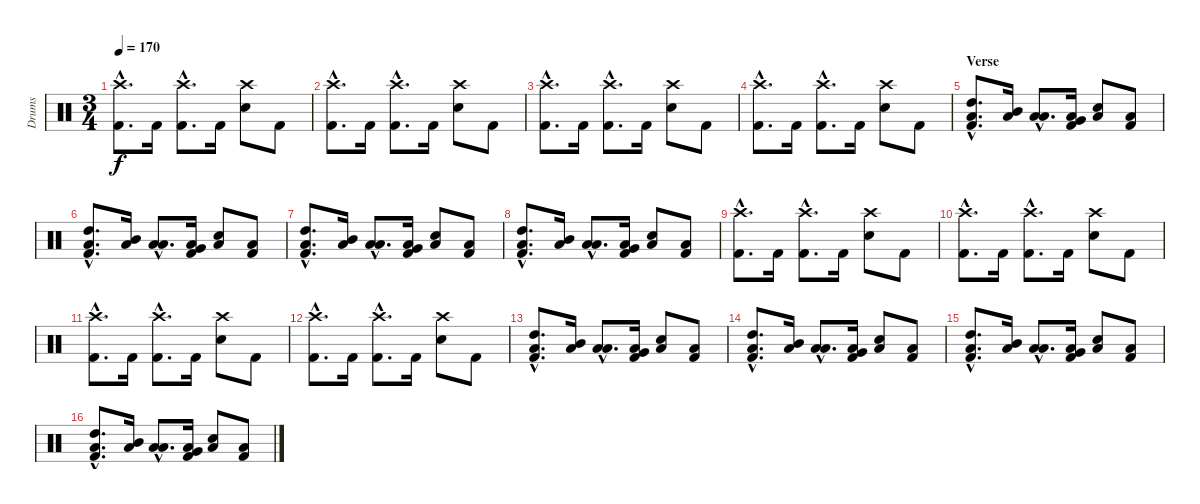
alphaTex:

\track ("Drums" "Drums") {instrument percussion}
\staff {score}
\articulation defaults
\ts (3 4)
\tempo 170
\clef neutral
\ks c
("Crash high (hit)"{hac} "Kick (hit) 2"{hac}).8{d dy f} "Kick (hit) 2".16 ("Crash high (hit)"{hac} "Kick (hit) 2"{hac}).8{d} "Kick (hit) 2".16 ("Crash high (hit)" "Electric Snare (hit)").8 "Kick (hit) 2".8 |
("Crash high (hit)"{hac} "Kick (hit) 2"{hac}).8{d} "Kick (hit) 2".16 ("Crash high (hit)"{hac} "Kick (hit) 2"{hac}).8{d} "Kick (hit) 2".16 ("Crash high (hit)" "Electric Snare (hit)").8 "Kick (hit) 2".8 |
("Crash high (hit)"{hac} "Kick (hit) 2"{hac}).8{d} "Kick (hit) 2".16 ("Crash high (hit)"{hac} "Kick (hit) 2"{hac}).8{d} "Kick (hit) 2".16 ("Crash high (hit)" "Electric Snare (hit)").8 "Kick (hit) 2".8 |
("Crash high (hit)"{hac} "Kick (hit) 2"{hac}).8{d} "Kick (hit) 2".16 ("Crash high (hit)"{hac} "Kick (hit) 2"{hac}).8{d} "Kick (hit) 2".16 ("Crash high (hit)" "Electric Snare (hit)").8 "Kick (hit) 2".8 |
\section ("" "Verse")
("High Tom (hit)"{hac} "Low Floor Tom (hit)"{hac} "Kick (hit) 2"{hac}).8{d} ("Mid Tom (hit)" "Low Floor Tom (hit)").16 ("Low Tom (hit)"{hac} "Low Floor Tom (hit)"{hac}).8{d} ("Very Low Tom (hit)" "Low Floor Tom (hit)" "Kick (hit) 2").16 ("Electric Snare (hit)" "Low Floor Tom (hit)").8 ("Low Floor Tom (hit)" "Kick (hit) 2").8 |
("High Tom (hit)"{hac} "Low Floor Tom (hit)"{hac} "Kick (hit) 2"{hac}).8{d} ("Mid Tom (hit)" "Low Floor Tom (hit)").16 ("Low Tom (hit)"{hac} "Low Floor Tom (hit)"{hac}).8{d} ("Very Low Tom (hit)" "Low Floor Tom (hit)" "Kick (hit) 2").16 ("Electric Snare (hit)" "Low Floor Tom (hit)").8 ("Low Floor Tom (hit)" "Kick (hit) 2").8 |
("High Tom (hit)"{hac} "Low Floor Tom (hit)"{hac} "Kick (hit) 2"{hac}).8{d} ("Mid Tom (hit)" "Low Floor Tom (hit)").16 ("Low Tom (hit)"{hac} "Low Floor Tom (hit)"{hac}).8{d} ("Very Low Tom (hit)" "Low Floor Tom (hit)" "Kick (hit) 2").16 ("Electric Snare (hit)" "Low Floor Tom (hit)").8 ("Low Floor Tom (hit)" "Kick (hit) 2").8 |
("High Tom (hit)"{hac} "Low Floor Tom (hit)"{hac} "Kick (hit) 2"{hac}).8{d} ("Mid Tom (hit)" "Low Floor Tom (hit)").16 ("Low Tom (hit)"{hac} "Low Floor Tom (hit)"{hac}).8{d} ("Very Low Tom (hit)" "Low Floor Tom (hit)" "Kick (hit) 2").16 ("Electric Snare (hit)" "Low Floor Tom (hit)").8 ("Low Floor Tom (hit)" "Kick (hit) 2").8 |
("Crash high (hit)"{hac} "Kick (hit) 2"{hac}).8{d} "Kick (hit) 2".16 ("Crash high (hit)"{hac} "Kick (hit) 2"{hac}).8{d} "Kick (hit) 2".16 ("Crash high (hit)" "Electric Snare (hit)").8 "Kick (hit) 2".8 |
("Crash high (hit)"{hac} "Kick (hit) 2"{hac}).8{d} "Kick (hit) 2".16 ("Crash high (hit)"{hac} "Kick (hit) 2"{hac}).8{d} "Kick (hit) 2".16 ("Crash high (hit)" "Electric Snare (hit)").8 "Kick (hit) 2".8 |
("Crash high (hit)"{hac} "Kick (hit) 2"{hac}).8{d} "Kick (hit) 2".16 ("Crash high (hit)"{hac} "Kick (hit) 2"{hac}).8{d} "Kick (hit) 2".16 ("Crash high (hit)" "Electric Snare (hit)").8 "Kick (hit) 2".8 |
("Crash high (hit)"{hac} "Kick (hit) 2"{hac}).8{d} "Kick (hit) 2".16 ("Crash high (hit)"{hac} "Kick (hit) 2"{hac}).8{d} "Kick (hit) 2".16 ("Crash high (hit)" "Electric Snare (hit)").8 "Kick (hit) 2".8 |
("High Tom (hit)"{hac} "Low Floor Tom (hit)"{hac} "Kick (hit) 2"{hac}).8{d} ("Mid Tom (hit)" "Low Floor Tom (hit)").16 ("Low Tom (hit)"{hac} "Low Floor Tom (hit)"{hac}).8{d} ("Very Low Tom (hit)" "Low Floor Tom (hit)" "Kick (hit) 2").16 ("Electric Snare (hit)" "Low Floor Tom (hit)").8 ("Low Floor Tom (hit)" "Kick (hit) 2").8 |
("High Tom (hit)"{hac} "Low Floor Tom (hit)"{hac} "Kick (hit) 2"{hac}).8{d} ("Mid Tom (hit)" "Low Floor Tom (hit)").16 ("Low Tom (hit)"{hac} "Low Floor Tom (hit)"{hac}).8{d} ("Very Low Tom (hit)" "Low Floor Tom (hit)" "Kick (hit) 2").16 ("Electric Snare (hit)" "Low Floor Tom (hit)").8 ("Low Floor Tom (hit)" "Kick (hit) 2").8 |
("High Tom (hit)"{hac} "Low Floor Tom (hit)"{hac} "Kick (hit) 2"{hac}).8{d} ("Mid Tom (hit)" "Low Floor Tom (hit)").16 ("Low Tom (hit)"{hac} "Low Floor Tom (hit)"{hac}).8{d} ("Very Low Tom (hit)" "Low Floor Tom (hit)" "Kick (hit) 2").16 ("Electric Snare (hit)" "Low Floor Tom (hit)").8 ("Low Floor Tom (hit)" "Kick (hit) 2").8 |
("High Tom (hit)"{hac} "Low Floor Tom (hit)"{hac} "Kick (hit) 2"{hac}).8{d} ("Mid Tom (hit)" "Low Floor Tom (hit)").16 ("Low Tom (hit)"{hac} "Low Floor Tom (hit)"{hac}).8{d} ("Very Low Tom (hit)" "Low Floor Tom (hit)" "Kick (hit) 2").16 ("Electric Snare (hit)" "Low Floor Tom (hit)").8 ("Low Floor Tom (hit)" "Kick (hit) 2").8
